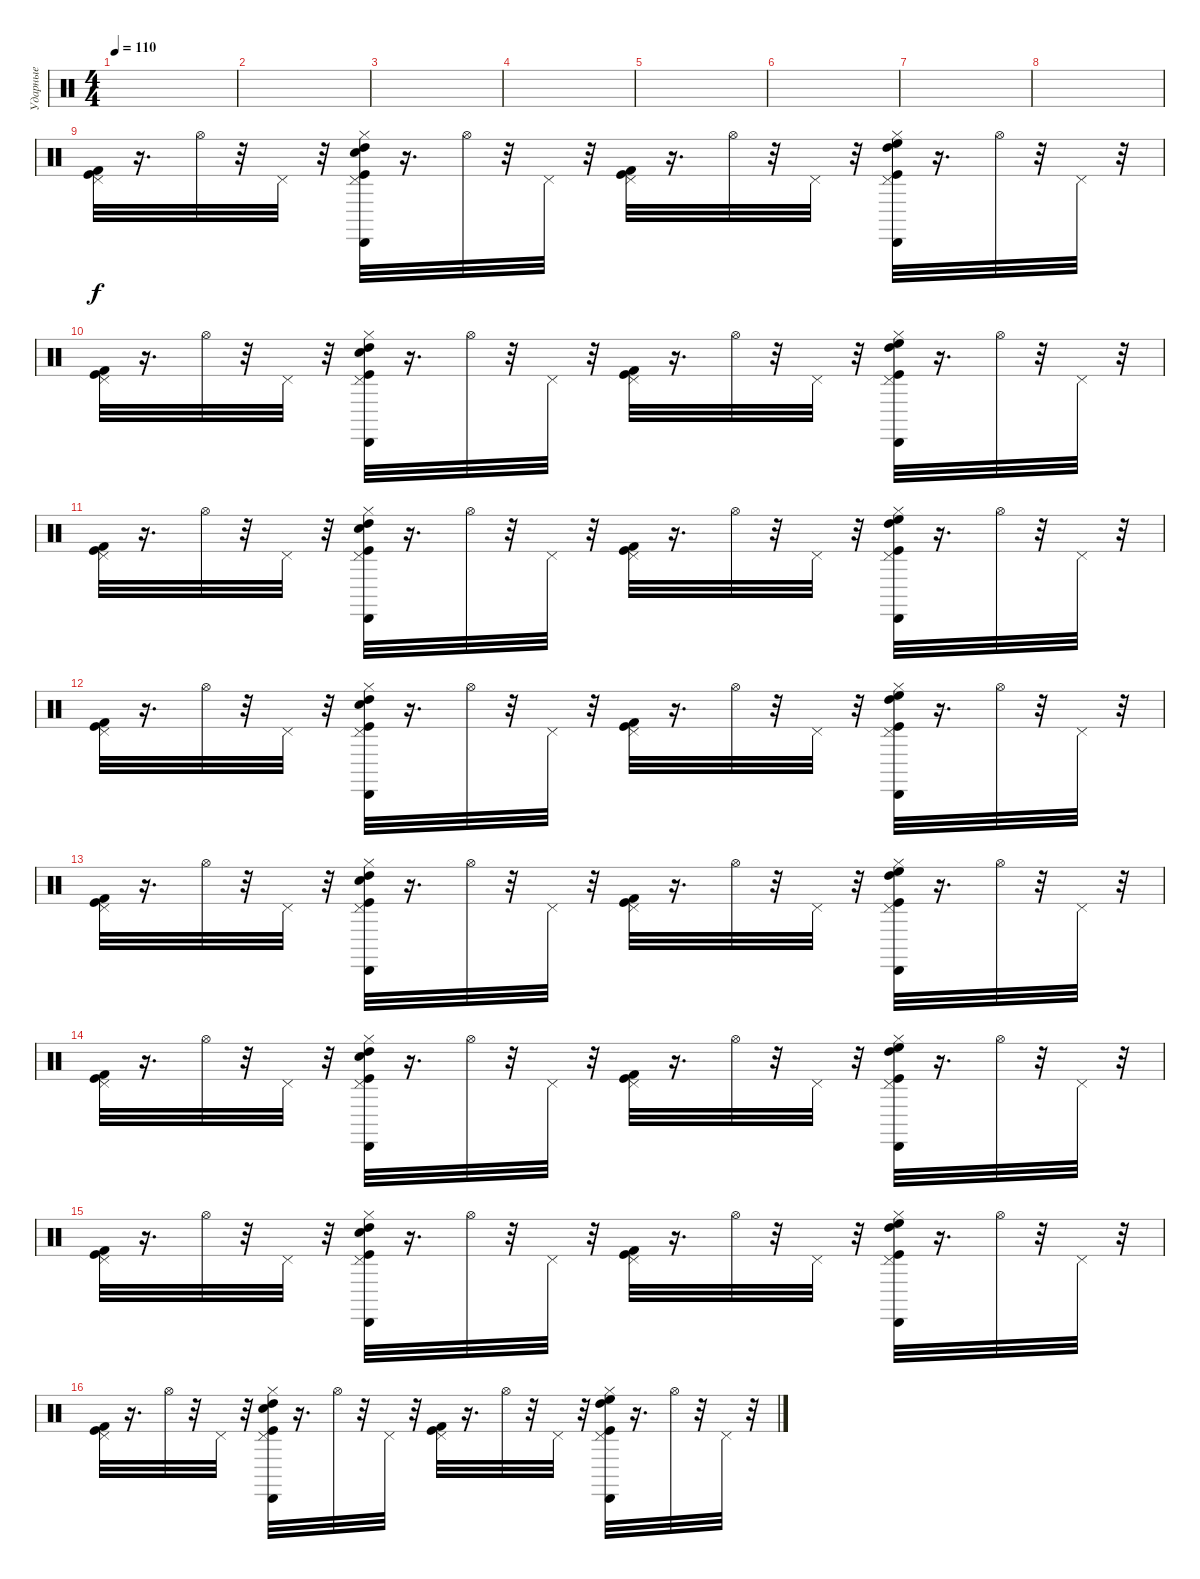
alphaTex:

\track ("Ударные" "Ударные") {instrument percussion}
\staff
\articulation defaults
\ts (4 4)
\tempo 110
\clef neutral
\ks c
|
|
|
|
|
|
|
|
("Pedal Hi-Hat (hit)" "Kick (hit) 2" "Kick (hit)").32 r.16{d} "Hi-Hat (open)".32 r.32 "Pedal Hi-Hat (hit)".32 r.32 ("Kick (hit)" "High Tom (hit)" "Cabasa (hit)" "Hi-Hat (closed)" "Pedal Hi-Hat (hit)" "Electric Snare (hit)").32 r.16{d} "Hi-Hat (open)".32 r.32 "Pedal Hi-Hat (hit)".32 r.32 ("Pedal Hi-Hat (hit)" "Kick (hit) 2" "Kick (hit)").32 r.16{d} "Hi-Hat (open)".32 r.32 "Pedal Hi-Hat (hit)".32 r.32 ("Kick (hit)" "High Floor Tom (hit)" "High Tom (hit)" "Cabasa (hit)" "Hi-Hat (closed)" "Pedal Hi-Hat (hit)").32 r.16{d} "Hi-Hat (open)".32 r.32 "Pedal Hi-Hat (hit)".32 r.32 |
("Pedal Hi-Hat (hit)" "Kick (hit) 2" "Kick (hit)").32 r.16{d} "Hi-Hat (open)".32 r.32 "Pedal Hi-Hat (hit)".32 r.32 ("Kick (hit)" "High Tom (hit)" "Cabasa (hit)" "Hi-Hat (closed)" "Pedal Hi-Hat (hit)" "Electric Snare (hit)").32 r.16{d} "Hi-Hat (open)".32 r.32 "Pedal Hi-Hat (hit)".32 r.32 ("Pedal Hi-Hat (hit)" "Kick (hit) 2" "Kick (hit)").32 r.16{d} "Hi-Hat (open)".32 r.32 "Pedal Hi-Hat (hit)".32 r.32 ("Kick (hit)" "High Floor Tom (hit)" "High Tom (hit)" "Cabasa (hit)" "Hi-Hat (closed)" "Pedal Hi-Hat (hit)").32 r.16{d} "Hi-Hat (open)".32 r.32 "Pedal Hi-Hat (hit)".32 r.32 |
("Pedal Hi-Hat (hit)" "Kick (hit) 2" "Kick (hit)").32 r.16{d} "Hi-Hat (open)".32 r.32 "Pedal Hi-Hat (hit)".32 r.32 ("Kick (hit)" "High Tom (hit)" "Cabasa (hit)" "Hi-Hat (closed)" "Pedal Hi-Hat (hit)" "Electric Snare (hit)").32 r.16{d} "Hi-Hat (open)".32 r.32 "Pedal Hi-Hat (hit)".32 r.32 ("Pedal Hi-Hat (hit)" "Kick (hit) 2" "Kick (hit)").32 r.16{d} "Hi-Hat (open)".32 r.32 "Pedal Hi-Hat (hit)".32 r.32 ("Kick (hit)" "High Floor Tom (hit)" "High Tom (hit)" "Cabasa (hit)" "Hi-Hat (closed)" "Pedal Hi-Hat (hit)").32 r.16{d} "Hi-Hat (open)".32 r.32 "Pedal Hi-Hat (hit)".32 r.32 |
("Pedal Hi-Hat (hit)" "Kick (hit) 2" "Kick (hit)").32 r.16{d} "Hi-Hat (open)".32 r.32 "Pedal Hi-Hat (hit)".32 r.32 ("Kick (hit)" "High Tom (hit)" "Cabasa (hit)" "Hi-Hat (closed)" "Pedal Hi-Hat (hit)" "Electric Snare (hit)").32 r.16{d} "Hi-Hat (open)".32 r.32 "Pedal Hi-Hat (hit)".32 r.32 ("Pedal Hi-Hat (hit)" "Kick (hit) 2" "Kick (hit)").32 r.16{d} "Hi-Hat (open)".32 r.32 "Pedal Hi-Hat (hit)".32 r.32 ("Kick (hit)" "High Floor Tom (hit)" "High Tom (hit)" "Cabasa (hit)" "Hi-Hat (closed)" "Pedal Hi-Hat (hit)").32 r.16{d} "Hi-Hat (open)".32 r.32 "Pedal Hi-Hat (hit)".32 r.32 |
("Pedal Hi-Hat (hit)" "Kick (hit) 2" "Kick (hit)").32 r.16{d} "Hi-Hat (open)".32 r.32 "Pedal Hi-Hat (hit)".32 r.32 ("Kick (hit)" "High Tom (hit)" "Cabasa (hit)" "Hi-Hat (closed)" "Pedal Hi-Hat (hit)" "Electric Snare (hit)").32 r.16{d} "Hi-Hat (open)".32 r.32 "Pedal Hi-Hat (hit)".32 r.32 ("Pedal Hi-Hat (hit)" "Kick (hit) 2" "Kick (hit)").32 r.16{d} "Hi-Hat (open)".32 r.32 "Pedal Hi-Hat (hit)".32 r.32 ("Kick (hit)" "High Floor Tom (hit)" "High Tom (hit)" "Cabasa (hit)" "Hi-Hat (closed)" "Pedal Hi-Hat (hit)").32 r.16{d} "Hi-Hat (open)".32 r.32 "Pedal Hi-Hat (hit)".32 r.32 |
("Pedal Hi-Hat (hit)" "Kick (hit) 2" "Kick (hit)").32 r.16{d} "Hi-Hat (open)".32 r.32 "Pedal Hi-Hat (hit)".32 r.32 ("Kick (hit)" "High Tom (hit)" "Cabasa (hit)" "Hi-Hat (closed)" "Pedal Hi-Hat (hit)" "Electric Snare (hit)").32 r.16{d} "Hi-Hat (open)".32 r.32 "Pedal Hi-Hat (hit)".32 r.32 ("Pedal Hi-Hat (hit)" "Kick (hit) 2" "Kick (hit)").32 r.16{d} "Hi-Hat (open)".32 r.32 "Pedal Hi-Hat (hit)".32 r.32 ("Kick (hit)" "High Floor Tom (hit)" "High Tom (hit)" "Cabasa (hit)" "Hi-Hat (closed)" "Pedal Hi-Hat (hit)").32 r.16{d} "Hi-Hat (open)".32 r.32 "Pedal Hi-Hat (hit)".32 r.32 |
("Pedal Hi-Hat (hit)" "Kick (hit) 2" "Kick (hit)").32 r.16{d} "Hi-Hat (open)".32 r.32 "Pedal Hi-Hat (hit)".32 r.32 ("Kick (hit)" "High Tom (hit)" "Cabasa (hit)" "Hi-Hat (closed)" "Pedal Hi-Hat (hit)" "Electric Snare (hit)").32 r.16{d} "Hi-Hat (open)".32 r.32 "Pedal Hi-Hat (hit)".32 r.32 ("Pedal Hi-Hat (hit)" "Kick (hit) 2" "Kick (hit)").32 r.16{d} "Hi-Hat (open)".32 r.32 "Pedal Hi-Hat (hit)".32 r.32 ("Kick (hit)" "High Floor Tom (hit)" "High Tom (hit)" "Cabasa (hit)" "Hi-Hat (closed)" "Pedal Hi-Hat (hit)").32 r.16{d} "Hi-Hat (open)".32 r.32 "Pedal Hi-Hat (hit)".32 r.32 |
("Pedal Hi-Hat (hit)" "Kick (hit) 2" "Kick (hit)").32 r.16{d} "Hi-Hat (open)".32 r.32 "Pedal Hi-Hat (hit)".32 r.32 ("Kick (hit)" "High Tom (hit)" "Cabasa (hit)" "Hi-Hat (closed)" "Pedal Hi-Hat (hit)" "Electric Snare (hit)").32 r.16{d} "Hi-Hat (open)".32 r.32 "Pedal Hi-Hat (hit)".32 r.32 ("Pedal Hi-Hat (hit)" "Kick (hit) 2" "Kick (hit)").32 r.16{d} "Hi-Hat (open)".32 r.32 "Pedal Hi-Hat (hit)".32 r.32 ("Kick (hit)" "High Floor Tom (hit)" "High Tom (hit)" "Cabasa (hit)" "Hi-Hat (closed)" "Pedal Hi-Hat (hit)").32 r.16{d} "Hi-Hat (open)".32 r.32 "Pedal Hi-Hat (hit)".32 r.32
